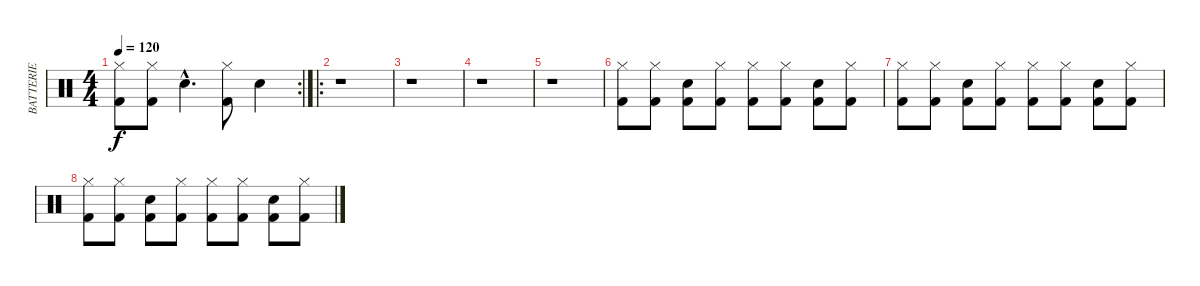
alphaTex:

\track ("BATTERIE" "BATTERIE") {instrument percussion}
\staff {score}
\articulation defaults
\rc 2
\ts (4 4)
\tempo 120
\clef neutral
\ks c
("Kick (hit) 2" "Hi-Hat (closed)").8{dy f} ("Kick (hit) 2" "Hi-Hat (closed)").8 "Electric Snare (hit)"{hac}.4{d} ("Kick (hit) 2" "Hi-Hat (closed)").8 "Electric Snare (hit)".4 |
\ro
r.1 |
r.1 |
r.1 |
r.1 |
("Kick (hit) 2" "Hi-Hat (closed)").8 ("Kick (hit) 2" "Hi-Hat (closed)").8 ("Kick (hit) 2" "Electric Snare (hit)").8 ("Kick (hit) 2" "Hi-Hat (closed)").8 ("Kick (hit) 2" "Hi-Hat (closed)").8 ("Kick (hit) 2" "Hi-Hat (closed)").8 ("Kick (hit) 2" "Electric Snare (hit)").8 ("Kick (hit) 2" "Hi-Hat (closed)").8 |
("Kick (hit) 2" "Hi-Hat (closed)").8 ("Kick (hit) 2" "Hi-Hat (closed)").8 ("Kick (hit) 2" "Electric Snare (hit)").8 ("Kick (hit) 2" "Hi-Hat (closed)").8 ("Kick (hit) 2" "Hi-Hat (closed)").8 ("Kick (hit) 2" "Hi-Hat (closed)").8 ("Kick (hit) 2" "Electric Snare (hit)").8 ("Kick (hit) 2" "Hi-Hat (closed)").8 |
("Kick (hit) 2" "Hi-Hat (closed)").8 ("Kick (hit) 2" "Hi-Hat (closed)").8 ("Kick (hit) 2" "Electric Snare (hit)").8 ("Kick (hit) 2" "Hi-Hat (closed)").8 ("Kick (hit) 2" "Hi-Hat (closed)").8 ("Kick (hit) 2" "Hi-Hat (closed)").8 ("Kick (hit) 2" "Electric Snare (hit)").8 ("Kick (hit) 2" "Hi-Hat (closed)").8
